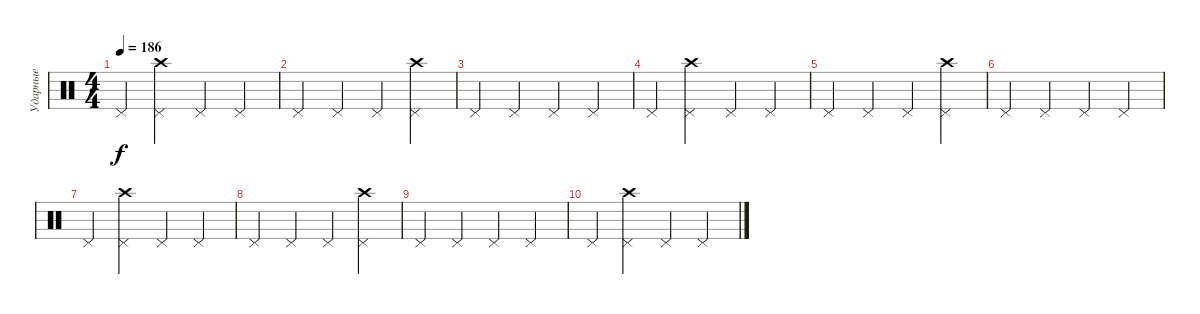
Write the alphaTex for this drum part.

\track ("Ударные" "Ударные") {instrument percussion}
\staff {score}
\articulation defaults
\ts (4 4)
\tempo 186
\clef neutral
\ks c "Pedal Hi-Hat (hit)".4{dy f}
("Pedal Hi-Hat (hit)" "Crash high (hit)").4 "Pedal Hi-Hat (hit)".4 "Pedal Hi-Hat (hit)".4 |
"Pedal Hi-Hat (hit)".4 "Pedal Hi-Hat (hit)".4 "Pedal Hi-Hat (hit)".4 ("Crash high (hit)" "Pedal Hi-Hat (hit)").4 |
"Pedal Hi-Hat (hit)".4 "Pedal Hi-Hat (hit)".4 "Pedal Hi-Hat (hit)".4 "Pedal Hi-Hat (hit)".4 |
"Pedal Hi-Hat (hit)".4 ("Pedal Hi-Hat (hit)" "Crash high (hit)").4 "Pedal Hi-Hat (hit)".4 "Pedal Hi-Hat (hit)".4 |
"Pedal Hi-Hat (hit)".4 "Pedal Hi-Hat (hit)".4 "Pedal Hi-Hat (hit)".4 ("Crash high (hit)" "Pedal Hi-Hat (hit)").4 |
"Pedal Hi-Hat (hit)".4 "Pedal Hi-Hat (hit)".4 "Pedal Hi-Hat (hit)".4 "Pedal Hi-Hat (hit)".4 |
"Pedal Hi-Hat (hit)".4 ("Pedal Hi-Hat (hit)" "Crash high (hit)").4 "Pedal Hi-Hat (hit)".4 "Pedal Hi-Hat (hit)".4 |
"Pedal Hi-Hat (hit)".4 "Pedal Hi-Hat (hit)".4 "Pedal Hi-Hat (hit)".4 ("Crash high (hit)" "Pedal Hi-Hat (hit)").4 |
"Pedal Hi-Hat (hit)".4 "Pedal Hi-Hat (hit)".4 "Pedal Hi-Hat (hit)".4 "Pedal Hi-Hat (hit)".4 |
"Pedal Hi-Hat (hit)".4 ("Pedal Hi-Hat (hit)" "Crash high (hit)").4 "Pedal Hi-Hat (hit)".4 "Pedal Hi-Hat (hit)".4
